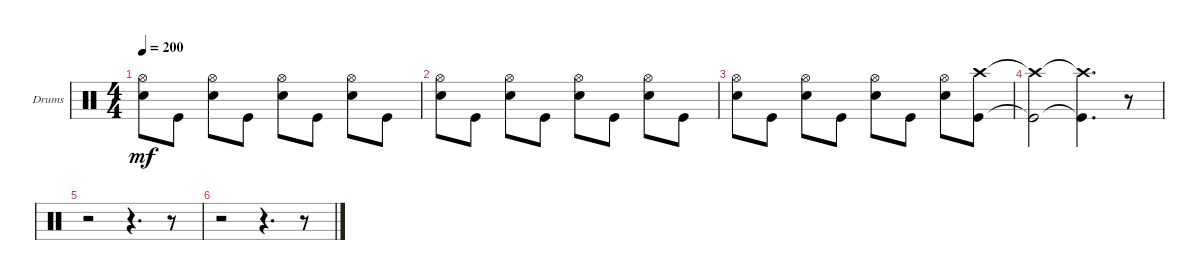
\bracketExtendMode groupsimilarinstruments
\firstSystemTrackNameOrientation horizontal
\otherSystemsTrackNameOrientation horizontal
\track ("Drums" "Drums") {instrument percussion}
\staff {score}
\articulation defaults
\ts (4 4)
\tempo 200
\clef neutral
\ks c
("Snare (hit) 2" "Hi-Hat (open)").8{dy mf} "Kick (hit)".8 ("Snare (hit) 2" "Hi-Hat (open)").8 "Kick (hit)".8 ("Snare (hit) 2" "Hi-Hat (open)").8 "Kick (hit)".8 ("Snare (hit) 2" "Hi-Hat (open)").8 "Kick (hit)".8 |
("Snare (hit) 2" "Hi-Hat (open)").8 "Kick (hit)".8 ("Snare (hit) 2" "Hi-Hat (open)").8 "Kick (hit)".8 ("Snare (hit) 2" "Hi-Hat (open)").8 "Kick (hit)".8 ("Snare (hit) 2" "Hi-Hat (open)").8 "Kick (hit)".8 |
("Snare (hit) 2" "Hi-Hat (open)").8 "Kick (hit)".8 ("Snare (hit) 2" "Hi-Hat (open)").8 "Kick (hit)".8 ("Snare (hit) 2" "Hi-Hat (open)").8 "Kick (hit)".8 ("Snare (hit) 2" "Hi-Hat (open)").8 ("Kick (hit)" "Crash high (hit)").8 |
("Kick (hit)"{t} "Crash high (hit)"{t}).2 ("Kick (hit)"{t} "Crash high (hit)"{t}).4{d} r.8 |
r.2 r.4{d} r.8 |
r.2 r.4{d} r.8
